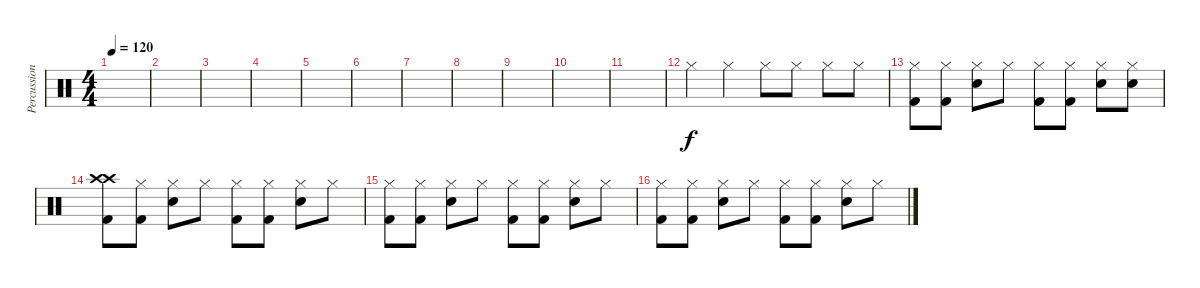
\track ("Percussion" "Percussion") {instrument percussion}
\staff {score}
\articulation defaults
\ts (4 4)
\tempo 120
\clef neutral
\ks c
|
|
|
|
|
|
|
|
|
|
|
"Hi-Hat (closed)".4 "Hi-Hat (closed)".4 "Hi-Hat (closed)".8 "Hi-Hat (closed)".8 "Hi-Hat (closed)".8 "Hi-Hat (closed)".8 |
("Hi-Hat (closed)" "Kick (hit) 2").8 ("Hi-Hat (closed)" "Kick (hit) 2").8 ("Hi-Hat (closed)" "Electric Snare (hit)").8 "Hi-Hat (closed)".8 ("Hi-Hat (closed)" "Kick (hit) 2").8 ("Hi-Hat (closed)" "Kick (hit) 2").8 ("Hi-Hat (closed)" "Electric Snare (hit)").8 ("Hi-Hat (closed)" "Electric Snare (hit)").8 |
("Crash high (hit)" "Kick (hit) 2" "Crash high (hit)").8 ("Hi-Hat (closed)" "Kick (hit) 2").8 ("Hi-Hat (closed)" "Electric Snare (hit)").8 "Hi-Hat (closed)".8 ("Hi-Hat (closed)" "Kick (hit) 2").8 ("Hi-Hat (closed)" "Kick (hit) 2").8 ("Hi-Hat (closed)" "Electric Snare (hit)").8 "Hi-Hat (closed)".8 |
("Hi-Hat (closed)" "Kick (hit) 2").8 ("Hi-Hat (closed)" "Kick (hit) 2").8 ("Hi-Hat (closed)" "Electric Snare (hit)").8 "Hi-Hat (closed)".8 ("Hi-Hat (closed)" "Kick (hit) 2").8 ("Hi-Hat (closed)" "Kick (hit) 2").8 ("Hi-Hat (closed)" "Electric Snare (hit)").8 "Hi-Hat (closed)".8 |
("Hi-Hat (closed)" "Kick (hit) 2").8 ("Hi-Hat (closed)" "Kick (hit) 2").8 ("Hi-Hat (closed)" "Electric Snare (hit)").8 "Hi-Hat (closed)".8 ("Hi-Hat (closed)" "Kick (hit) 2").8 ("Hi-Hat (closed)" "Kick (hit) 2").8 ("Hi-Hat (closed)" "Electric Snare (hit)").8 "Hi-Hat (closed)".8
